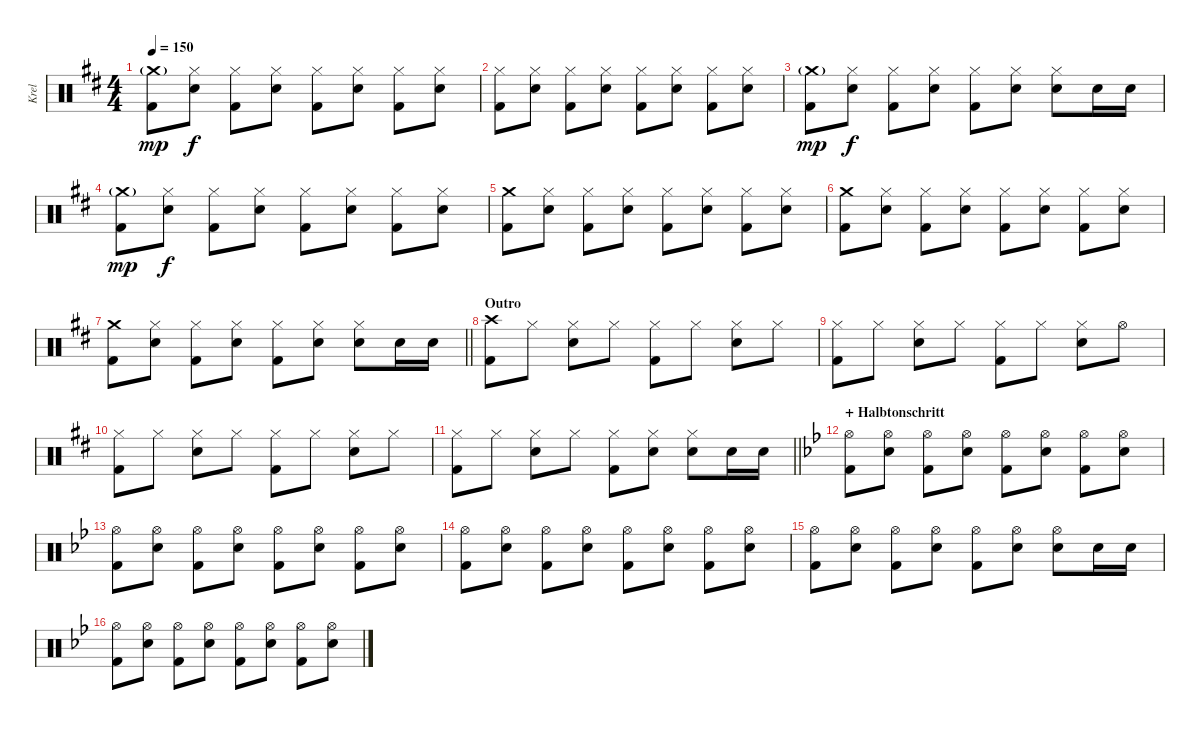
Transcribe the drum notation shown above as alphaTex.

\track ("Krel" "Krel") {instrument percussion}
\staff {score}
\articulation defaults
\ts (4 4)
\tempo 150
\clef neutral
\ks d
("Crash medium (hit)"{g} "Kick (hit) 2").8{dy mp} ("Hi-Hat (closed)" "Snare (hit) 2").8{dy f} ("Hi-Hat (closed)" "Kick (hit) 2").8 ("Hi-Hat (closed)" "Snare (hit) 2").8 ("Hi-Hat (closed)" "Kick (hit) 2").8 ("Hi-Hat (closed)" "Snare (hit) 2").8 ("Hi-Hat (closed)" "Kick (hit) 2").8 ("Hi-Hat (closed)" "Snare (hit) 2").8 |
("Hi-Hat (closed)" "Kick (hit) 2").8 ("Hi-Hat (closed)" "Snare (hit) 2").8 ("Hi-Hat (closed)" "Kick (hit) 2").8 ("Hi-Hat (closed)" "Snare (hit) 2").8 ("Hi-Hat (closed)" "Kick (hit) 2").8 ("Hi-Hat (closed)" "Snare (hit) 2").8 ("Hi-Hat (closed)" "Kick (hit) 2").8 ("Hi-Hat (closed)" "Snare (hit) 2").8 |
("Crash medium (hit)"{g} "Kick (hit) 2").8{dy mp} ("Hi-Hat (closed)" "Snare (hit) 2").8{dy f} ("Hi-Hat (closed)" "Kick (hit) 2").8 ("Hi-Hat (closed)" "Snare (hit) 2").8 ("Hi-Hat (closed)" "Kick (hit) 2").8 ("Hi-Hat (closed)" "Snare (hit) 2").8 ("Hi-Hat (closed)" "Snare (hit) 2").8 "Snare (hit) 2".16 "Snare (hit) 2".16 |
("Crash medium (hit)"{g} "Kick (hit) 2").8{dy mp} ("Hi-Hat (closed)" "Snare (hit) 2").8{dy f} ("Hi-Hat (closed)" "Kick (hit) 2").8 ("Hi-Hat (closed)" "Snare (hit) 2").8 ("Hi-Hat (closed)" "Kick (hit) 2").8 ("Hi-Hat (closed)" "Snare (hit) 2").8 ("Hi-Hat (closed)" "Kick (hit) 2").8 ("Hi-Hat (closed)" "Snare (hit) 2").8 |
("Crash medium (hit)" "Kick (hit) 2").8 ("Hi-Hat (closed)" "Snare (hit) 2").8 ("Hi-Hat (closed)" "Kick (hit) 2").8 ("Hi-Hat (closed)" "Snare (hit) 2").8 ("Hi-Hat (closed)" "Kick (hit) 2").8 ("Hi-Hat (closed)" "Snare (hit) 2").8 ("Hi-Hat (closed)" "Kick (hit) 2").8 ("Hi-Hat (closed)" "Snare (hit) 2").8 |
("Crash medium (hit)" "Kick (hit) 2").8 ("Hi-Hat (closed)" "Snare (hit) 2").8 ("Hi-Hat (closed)" "Kick (hit) 2").8 ("Hi-Hat (closed)" "Snare (hit) 2").8 ("Hi-Hat (closed)" "Kick (hit) 2").8 ("Hi-Hat (closed)" "Snare (hit) 2").8 ("Hi-Hat (closed)" "Kick (hit) 2").8 ("Hi-Hat (closed)" "Snare (hit) 2").8 |
\barLineRight lightlight
("Crash medium (hit)" "Kick (hit) 2").8 ("Hi-Hat (closed)" "Snare (hit) 2").8 ("Hi-Hat (closed)" "Kick (hit) 2").8 ("Hi-Hat (closed)" "Snare (hit) 2").8 ("Hi-Hat (closed)" "Kick (hit) 2").8 ("Hi-Hat (closed)" "Snare (hit) 2").8 ("Hi-Hat (closed)" "Snare (hit) 2").8 "Snare (hit) 2".16 "Snare (hit) 2".16 |
\section ("" "Outro")
("Crash high (hit)" "Kick (hit) 2").8 "Hi-Hat (closed)".8 ("Hi-Hat (closed)" "Snare (hit) 2").8 "Hi-Hat (closed)".8 ("Hi-Hat (closed)" "Kick (hit) 2").8 "Hi-Hat (closed)".8 ("Hi-Hat (closed)" "Snare (hit) 2").8 "Hi-Hat (closed)".8 |
("Hi-Hat (closed)" "Kick (hit) 2").8 "Hi-Hat (closed)".8 ("Hi-Hat (closed)" "Snare (hit) 2").8 "Hi-Hat (closed)".8 ("Hi-Hat (closed)" "Kick (hit) 2").8 "Hi-Hat (closed)".8 ("Hi-Hat (closed)" "Snare (hit) 2").8 "Hi-Hat (open)".8 |
("Hi-Hat (closed)" "Kick (hit) 2").8 "Hi-Hat (closed)".8 ("Hi-Hat (closed)" "Snare (hit) 2").8 "Hi-Hat (closed)".8 ("Hi-Hat (closed)" "Kick (hit) 2").8 "Hi-Hat (closed)".8 ("Hi-Hat (closed)" "Snare (hit) 2").8 "Hi-Hat (closed)".8 |
\barLineRight lightlight
("Hi-Hat (closed)" "Kick (hit) 2").8 "Hi-Hat (closed)".8 ("Hi-Hat (closed)" "Snare (hit) 2").8 "Hi-Hat (closed)".8 ("Hi-Hat (closed)" "Kick (hit) 2").8 ("Hi-Hat (closed)" "Snare (hit) 2").8 ("Hi-Hat (closed)" "Snare (hit) 2").8 "Snare (hit) 2".16 "Snare (hit) 2".16 |
\section ("" "+ Halbtonschritt")
\ks bb
("Hi-Hat (open)" "Kick (hit) 2").8 ("Hi-Hat (open)" "Snare (hit) 2").8 ("Hi-Hat (open)" "Kick (hit) 2").8 ("Hi-Hat (open)" "Snare (hit) 2").8 ("Hi-Hat (open)" "Kick (hit) 2").8 ("Hi-Hat (open)" "Snare (hit) 2").8 ("Hi-Hat (open)" "Kick (hit) 2").8 ("Hi-Hat (open)" "Snare (hit) 2").8 |
("Hi-Hat (open)" "Kick (hit) 2").8 ("Hi-Hat (open)" "Snare (hit) 2").8 ("Hi-Hat (open)" "Kick (hit) 2").8 ("Hi-Hat (open)" "Snare (hit) 2").8 ("Hi-Hat (open)" "Kick (hit) 2").8 ("Hi-Hat (open)" "Snare (hit) 2").8 ("Hi-Hat (open)" "Kick (hit) 2").8 ("Hi-Hat (open)" "Snare (hit) 2").8 |
("Hi-Hat (open)" "Kick (hit) 2").8 ("Hi-Hat (open)" "Snare (hit) 2").8 ("Hi-Hat (open)" "Kick (hit) 2").8 ("Hi-Hat (open)" "Snare (hit) 2").8 ("Hi-Hat (open)" "Kick (hit) 2").8 ("Hi-Hat (open)" "Snare (hit) 2").8 ("Hi-Hat (open)" "Kick (hit) 2").8 ("Hi-Hat (open)" "Snare (hit) 2").8 |
("Hi-Hat (open)" "Kick (hit) 2").8 ("Hi-Hat (open)" "Snare (hit) 2").8 ("Hi-Hat (open)" "Kick (hit) 2").8 ("Hi-Hat (open)" "Snare (hit) 2").8 ("Hi-Hat (open)" "Kick (hit) 2").8 ("Hi-Hat (open)" "Snare (hit) 2").8 ("Hi-Hat (open)" "Snare (hit) 2").8 "Snare (hit) 2".16 "Snare (hit) 2".16 |
("Hi-Hat (open)" "Kick (hit) 2").8 ("Hi-Hat (open)" "Snare (hit) 2").8 ("Hi-Hat (open)" "Kick (hit) 2").8 ("Hi-Hat (open)" "Snare (hit) 2").8 ("Hi-Hat (open)" "Kick (hit) 2").8 ("Hi-Hat (open)" "Snare (hit) 2").8 ("Hi-Hat (open)" "Kick (hit) 2").8 ("Hi-Hat (open)" "Snare (hit) 2").8
